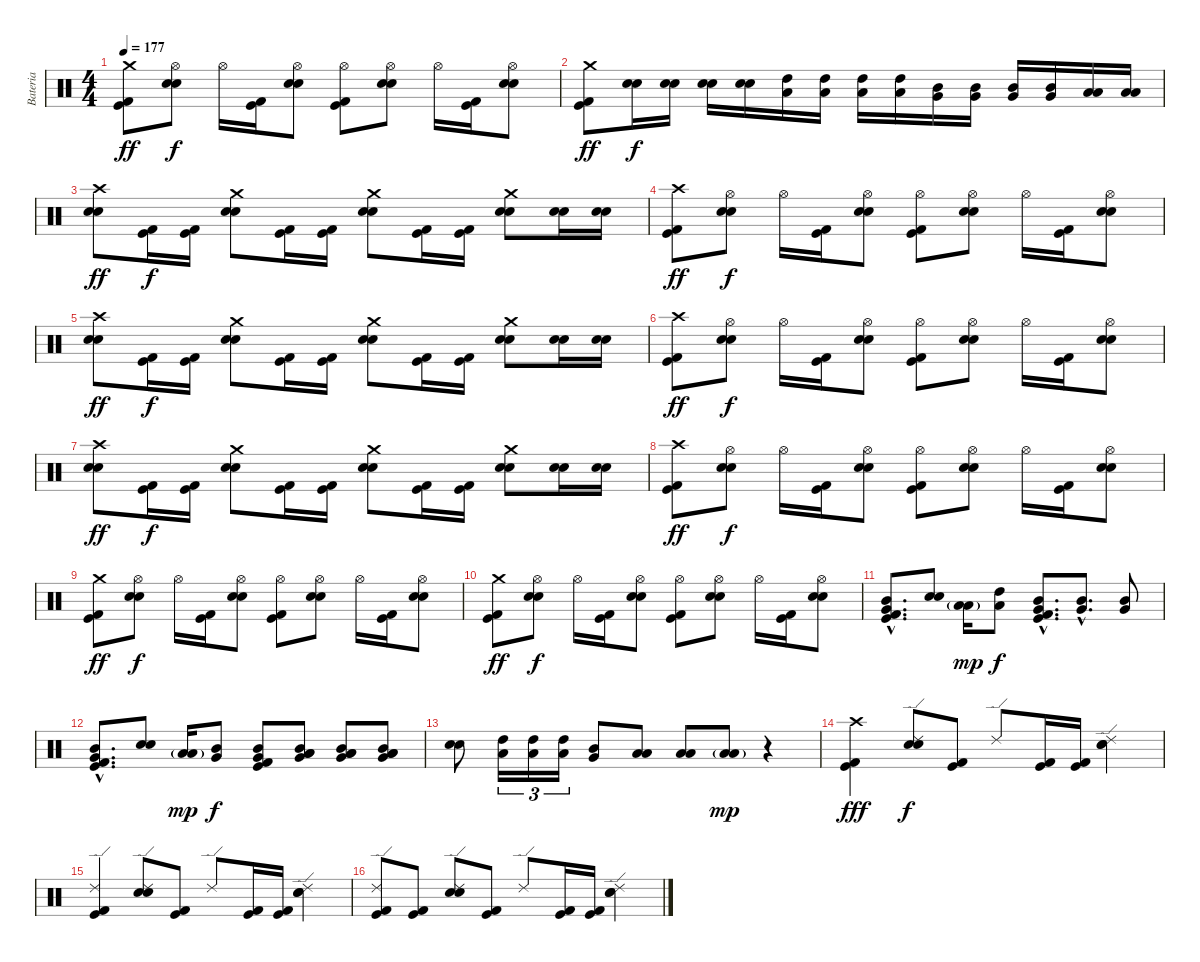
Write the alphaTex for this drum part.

\track ("Bateria" "Bateria") {instrument percussion}
\staff {score}
\articulation defaults
\ts (4 4)
\tempo 177
\clef neutral
\ks c
("Crash medium (hit)" "Kick (hit) 2" "Kick (hit)").8{dy ff} ("Hi-Hat (open)" "Electric Snare (hit)" "Snare (hit) 2").8{dy f} "Hi-Hat (open)".16 ("Kick (hit) 2" "Kick (hit)").16 ("Hi-Hat (open)" "Electric Snare (hit)" "Snare (hit) 2").8 ("Hi-Hat (open)" "Kick (hit) 2" "Kick (hit)").8 ("Hi-Hat (open)" "Electric Snare (hit)" "Snare (hit) 2").8 "Hi-Hat (open)".16 ("Kick (hit) 2" "Kick (hit)").16 ("Hi-Hat (open)" "Electric Snare (hit)" "Snare (hit) 2").8 |
("Crash medium (hit)" "Kick (hit) 2" "Kick (hit)").8{dy ff} ("Electric Snare (hit)" "Snare (hit) 2").16{dy f} ("Electric Snare (hit)" "Snare (hit) 2").16 ("Electric Snare (hit)" "Snare (hit) 2").16 ("Electric Snare (hit)" "Snare (hit) 2").16 ("High Tom (hit)" "Low Tom (hit)").16 ("High Tom (hit)" "Low Tom (hit)").16 ("High Tom (hit)" "Low Tom (hit)").16 ("High Tom (hit)" "Low Tom (hit)").16 ("Mid Tom (hit)" "Very Low Tom (hit)").16 ("Mid Tom (hit)" "Very Low Tom (hit)").16 ("Mid Tom (hit)" "Very Low Tom (hit)").16 ("Mid Tom (hit)" "Very Low Tom (hit)").16 ("Low Tom (hit)" "Low Floor Tom (hit)").16 ("Low Tom (hit)" "Low Floor Tom (hit)").16 |
("Crash high (hit)" "Electric Snare (hit)" "Snare (hit) 2").8{dy ff} ("Kick (hit) 2" "Kick (hit)").16{dy f} ("Kick (hit) 2" "Kick (hit)").16 ("Crash medium (hit)" "Electric Snare (hit)" "Snare (hit) 2").8 ("Kick (hit) 2" "Kick (hit)").16 ("Kick (hit) 2" "Kick (hit)").16 ("Crash medium (hit)" "Electric Snare (hit)" "Snare (hit) 2").8 ("Kick (hit) 2" "Kick (hit)").16 ("Kick (hit) 2" "Kick (hit)").16 ("Crash medium (hit)" "Electric Snare (hit)" "Snare (hit) 2").8 ("Electric Snare (hit)" "Snare (hit) 2").16 ("Electric Snare (hit)" "Snare (hit) 2").16 |
("Crash high (hit)" "Kick (hit) 2" "Kick (hit)").8{dy ff} ("Hi-Hat (open)" "Electric Snare (hit)" "Snare (hit) 2").8{dy f} "Hi-Hat (open)".16 ("Kick (hit) 2" "Kick (hit)").16 ("Hi-Hat (open)" "Electric Snare (hit)" "Snare (hit) 2").8 ("Hi-Hat (open)" "Kick (hit) 2" "Kick (hit)").8 ("Hi-Hat (open)" "Electric Snare (hit)" "Snare (hit) 2").8 "Hi-Hat (open)".16 ("Kick (hit) 2" "Kick (hit)").16 ("Hi-Hat (open)" "Electric Snare (hit)" "Snare (hit) 2").8 |
("Crash high (hit)" "Electric Snare (hit)" "Snare (hit) 2").8{dy ff} ("Kick (hit) 2" "Kick (hit)").16{dy f} ("Kick (hit) 2" "Kick (hit)").16 ("Crash medium (hit)" "Electric Snare (hit)" "Snare (hit) 2").8 ("Kick (hit) 2" "Kick (hit)").16 ("Kick (hit) 2" "Kick (hit)").16 ("Crash medium (hit)" "Electric Snare (hit)" "Snare (hit) 2").8 ("Kick (hit) 2" "Kick (hit)").16 ("Kick (hit) 2" "Kick (hit)").16 ("Crash medium (hit)" "Electric Snare (hit)" "Snare (hit) 2").8 ("Electric Snare (hit)" "Snare (hit) 2").16 ("Electric Snare (hit)" "Snare (hit) 2").16 |
("Crash high (hit)" "Kick (hit) 2" "Kick (hit)").8{dy ff} ("Hi-Hat (open)" "Electric Snare (hit)" "Snare (hit) 2").8{dy f} "Hi-Hat (open)".16 ("Kick (hit) 2" "Kick (hit)").16 ("Hi-Hat (open)" "Electric Snare (hit)" "Snare (hit) 2").8 ("Hi-Hat (open)" "Kick (hit) 2" "Kick (hit)").8 ("Hi-Hat (open)" "Electric Snare (hit)" "Snare (hit) 2").8 "Hi-Hat (open)".16 ("Kick (hit) 2" "Kick (hit)").16 ("Hi-Hat (open)" "Electric Snare (hit)" "Snare (hit) 2").8 |
("Crash high (hit)" "Electric Snare (hit)" "Snare (hit) 2").8{dy ff} ("Kick (hit) 2" "Kick (hit)").16{dy f} ("Kick (hit) 2" "Kick (hit)").16 ("Crash medium (hit)" "Electric Snare (hit)" "Snare (hit) 2").8 ("Kick (hit) 2" "Kick (hit)").16 ("Kick (hit) 2" "Kick (hit)").16 ("Crash medium (hit)" "Electric Snare (hit)" "Snare (hit) 2").8 ("Kick (hit) 2" "Kick (hit)").16 ("Kick (hit) 2" "Kick (hit)").16 ("Crash medium (hit)" "Electric Snare (hit)" "Snare (hit) 2").8 ("Electric Snare (hit)" "Snare (hit) 2").16 ("Electric Snare (hit)" "Snare (hit) 2").16 |
("Crash high (hit)" "Kick (hit) 2" "Kick (hit)").8{dy ff} ("Hi-Hat (open)" "Electric Snare (hit)" "Snare (hit) 2").8{dy f} "Hi-Hat (open)".16 ("Kick (hit) 2" "Kick (hit)").16 ("Hi-Hat (open)" "Electric Snare (hit)" "Snare (hit) 2").8 ("Hi-Hat (open)" "Kick (hit) 2" "Kick (hit)").8 ("Hi-Hat (open)" "Electric Snare (hit)" "Snare (hit) 2").8 "Hi-Hat (open)".16 ("Kick (hit) 2" "Kick (hit)").16 ("Hi-Hat (open)" "Electric Snare (hit)" "Snare (hit) 2").8 |
("Crash medium (hit)" "Kick (hit) 2" "Kick (hit)").8{dy ff} ("Hi-Hat (open)" "Electric Snare (hit)" "Snare (hit) 2").8{dy f} "Hi-Hat (open)".16 ("Kick (hit) 2" "Kick (hit)").16 ("Hi-Hat (open)" "Electric Snare (hit)" "Snare (hit) 2").8 ("Hi-Hat (open)" "Kick (hit) 2" "Kick (hit)").8 ("Hi-Hat (open)" "Electric Snare (hit)" "Snare (hit) 2").8 "Hi-Hat (open)".16 ("Kick (hit) 2" "Kick (hit)").16 ("Hi-Hat (open)" "Electric Snare (hit)" "Snare (hit) 2").8 |
("Crash medium (hit)" "Kick (hit) 2" "Kick (hit)").8{dy ff} ("Hi-Hat (open)" "Electric Snare (hit)" "Snare (hit) 2").8{dy f} "Hi-Hat (open)".16 ("Kick (hit) 2" "Kick (hit)").16 ("Hi-Hat (open)" "Electric Snare (hit)" "Snare (hit) 2").8 ("Hi-Hat (open)" "Kick (hit) 2" "Kick (hit)").8 ("Hi-Hat (open)" "Electric Snare (hit)" "Snare (hit) 2").8 "Hi-Hat (open)".16 ("Kick (hit) 2" "Kick (hit)").16 ("Hi-Hat (open)" "Electric Snare (hit)" "Snare (hit) 2").8 |
("Mid Tom (hit)"{hac} "Very Low Tom (hit)"{hac} "Kick (hit) 2"{hac} "Kick (hit)"{hac}).8{d} ("Electric Snare (hit)" "Snare (hit) 2").8 ("Low Tom (hit)"{g} "Low Floor Tom (hit)"{g}).16{dy mp} ("High Tom (hit)" "Low Tom (hit)").8{dy f} ("Mid Tom (hit)"{hac} "Very Low Tom (hit)"{hac} "Kick (hit) 2"{hac} "Kick (hit)"{hac}).8{d} ("Mid Tom (hit)"{hac} "Very Low Tom (hit)"{hac}).8{d} ("Mid Tom (hit)" "Very Low Tom (hit)").8 |
("Mid Tom (hit)"{hac} "Very Low Tom (hit)"{hac} "Kick (hit) 2"{hac} "Kick (hit)"{hac}).8{d} ("Electric Snare (hit)" "Snare (hit) 2").8 ("Low Tom (hit)"{g} "Low Floor Tom (hit)"{g}).16{dy mp} ("Mid Tom (hit)" "Very Low Tom (hit)").8{dy f} ("Mid Tom (hit)" "Very Low Tom (hit)" "Kick (hit) 2" "Kick (hit)").8 ("Low Tom (hit)" "Low Floor Tom (hit)" "Mid Tom (hit)" "Very Low Tom (hit)").8 ("Low Tom (hit)" "Low Floor Tom (hit)" "Mid Tom (hit)" "Very Low Tom (hit)").8 ("Low Tom (hit)" "Low Floor Tom (hit)" "Mid Tom (hit)" "Very Low Tom (hit)").8 |
("Electric Snare (hit)" "Snare (hit) 2").8 ("High Tom (hit)" "Low Tom (hit)").16{tu (3 2)} ("High Tom (hit)" "Low Tom (hit)").16{tu (3 2)} ("High Tom (hit)" "Low Tom (hit)").16{tu (3 2)} ("Mid Tom (hit)" "Very Low Tom (hit)").8 ("Low Tom (hit)" "Low Floor Tom (hit)").8 ("Low Tom (hit)" "Low Floor Tom (hit)").8 ("Low Tom (hit)"{g} "Low Floor Tom (hit)"{g}).8{dy mp} r.4 |
("Crash high (hit)" "Kick (hit) 2" "Kick (hit)").4{dy fff} ("Ride (edge) 2" "Electric Snare (hit)" "Snare (hit) 2").8{dy f} ("Kick (hit) 2" "Kick (hit)").8 "Ride (edge) 2".8 ("Kick (hit) 2" "Kick (hit)").16 ("Kick (hit) 2" "Kick (hit)").16 ("Ride (edge) 2" "Electric Snare (hit)" "Snare (hit) 2").4 |
("Ride (edge) 2" "Kick (hit) 2" "Kick (hit)").4 ("Ride (edge) 2" "Electric Snare (hit)" "Snare (hit) 2").8 ("Kick (hit) 2" "Kick (hit)").8 "Ride (edge) 2".8 ("Kick (hit) 2" "Kick (hit)").16 ("Kick (hit) 2" "Kick (hit)").16 ("Ride (edge) 2" "Electric Snare (hit)" "Snare (hit) 2").4 |
("Ride (edge) 2" "Kick (hit) 2" "Kick (hit)").8 ("Kick (hit) 2" "Kick (hit)").8 ("Ride (edge) 2" "Electric Snare (hit)" "Snare (hit) 2").8 ("Kick (hit) 2" "Kick (hit)").8 "Ride (edge) 2".8 ("Kick (hit) 2" "Kick (hit)").16 ("Kick (hit) 2" "Kick (hit)").16 ("Ride (edge) 2" "Electric Snare (hit)" "Snare (hit) 2").4
